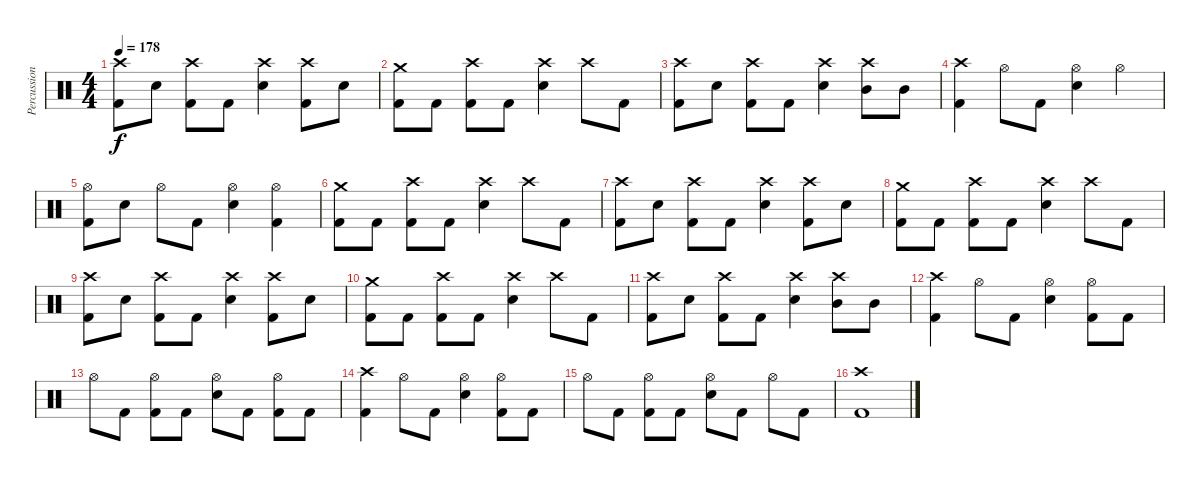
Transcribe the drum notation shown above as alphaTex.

\track ("Percussion" "Percussion") {instrument percussion}
\staff {score}
\articulation defaults
\ts (4 4)
\tempo 178
\clef neutral
\ks c
("Crash high (hit)" "Kick (hit) 2").8{dy f} "Snare (hit) 2".8 ("Crash high (hit)" "Kick (hit) 2").8 "Kick (hit) 2".8 ("Crash high (hit)" "Snare (hit) 2").4 ("Crash high (hit)" "Kick (hit) 2").8 "Snare (hit) 2".8 |
("Crash medium (hit)" "Kick (hit) 2").8 "Kick (hit) 2".8 ("Crash high (hit)" "Kick (hit) 2").8 "Kick (hit) 2".8 ("Crash high (hit)" "Snare (hit) 2").4 "Crash high (hit)".8 "Kick (hit) 2".8 |
("Crash high (hit)" "Kick (hit) 2").8 "Snare (hit) 2".8 ("Crash high (hit)" "Kick (hit) 2").8 "Kick (hit) 2".8 ("Crash high (hit)" "Snare (hit) 2").4 ("Crash high (hit)" "Mid Tom (hit)").8 "Mid Tom (hit)".8 |
("Crash high (hit)" "Kick (hit) 2").4 "Hi-Hat (open)".8 "Kick (hit) 2".8 ("Hi-Hat (open)" "Snare (hit) 2").4 "Hi-Hat (open)".4 |
("Hi-Hat (open)" "Kick (hit) 2").8 "Snare (hit) 2".8 "Hi-Hat (open)".8 "Kick (hit) 2".8 ("Hi-Hat (open)" "Snare (hit) 2").4 ("Hi-Hat (open)" "Kick (hit) 2").4 |
("Crash medium (hit)" "Kick (hit) 2").8 "Kick (hit) 2".8 ("Crash high (hit)" "Kick (hit) 2").8 "Kick (hit) 2".8 ("Crash high (hit)" "Snare (hit) 2").4 "Crash high (hit)".8 "Kick (hit) 2".8 |
("Crash high (hit)" "Kick (hit) 2").8 "Snare (hit) 2".8 ("Crash high (hit)" "Kick (hit) 2").8 "Kick (hit) 2".8 ("Crash high (hit)" "Snare (hit) 2").4 ("Crash high (hit)" "Kick (hit) 2").8 "Snare (hit) 2".8 |
("Crash medium (hit)" "Kick (hit) 2").8 "Kick (hit) 2".8 ("Crash high (hit)" "Kick (hit) 2").8 "Kick (hit) 2".8 ("Crash high (hit)" "Snare (hit) 2").4 "Crash high (hit)".8 "Kick (hit) 2".8 |
("Crash high (hit)" "Kick (hit) 2").8 "Snare (hit) 2".8 ("Crash high (hit)" "Kick (hit) 2").8 "Kick (hit) 2".8 ("Crash high (hit)" "Snare (hit) 2").4 ("Crash high (hit)" "Kick (hit) 2").8 "Snare (hit) 2".8 |
("Crash medium (hit)" "Kick (hit) 2").8 "Kick (hit) 2".8 ("Crash high (hit)" "Kick (hit) 2").8 "Kick (hit) 2".8 ("Crash high (hit)" "Snare (hit) 2").4 "Crash high (hit)".8 "Kick (hit) 2".8 |
("Crash high (hit)" "Kick (hit) 2").8 "Snare (hit) 2".8 ("Crash high (hit)" "Kick (hit) 2").8 "Kick (hit) 2".8 ("Crash high (hit)" "Snare (hit) 2").4 ("Crash high (hit)" "Mid Tom (hit)").8 "Mid Tom (hit)".8 |
("Crash high (hit)" "Kick (hit) 2").4 "Hi-Hat (open)".8 "Kick (hit) 2".8 ("Hi-Hat (open)" "Snare (hit) 2").4 ("Hi-Hat (open)" "Kick (hit) 2").8 "Kick (hit) 2".8 |
"Hi-Hat (open)".8 "Kick (hit) 2".8 ("Hi-Hat (open)" "Kick (hit) 2").8 "Kick (hit) 2".8 ("Hi-Hat (open)" "Snare (hit) 2").8 "Kick (hit) 2".8 ("Hi-Hat (open)" "Kick (hit) 2").8 "Kick (hit) 2".8 |
("Crash high (hit)" "Kick (hit) 2").4 "Hi-Hat (open)".8 "Kick (hit) 2".8 ("Hi-Hat (open)" "Snare (hit) 2").4 ("Hi-Hat (open)" "Kick (hit) 2").8 "Kick (hit) 2".8 |
"Hi-Hat (open)".8 "Kick (hit) 2".8 ("Hi-Hat (open)" "Kick (hit) 2").8 "Kick (hit) 2".8 ("Hi-Hat (open)" "Snare (hit) 2").8 "Kick (hit) 2".8 "Hi-Hat (open)".8 "Kick (hit) 2".8 |
("Crash high (hit)" "Kick (hit) 2").1
